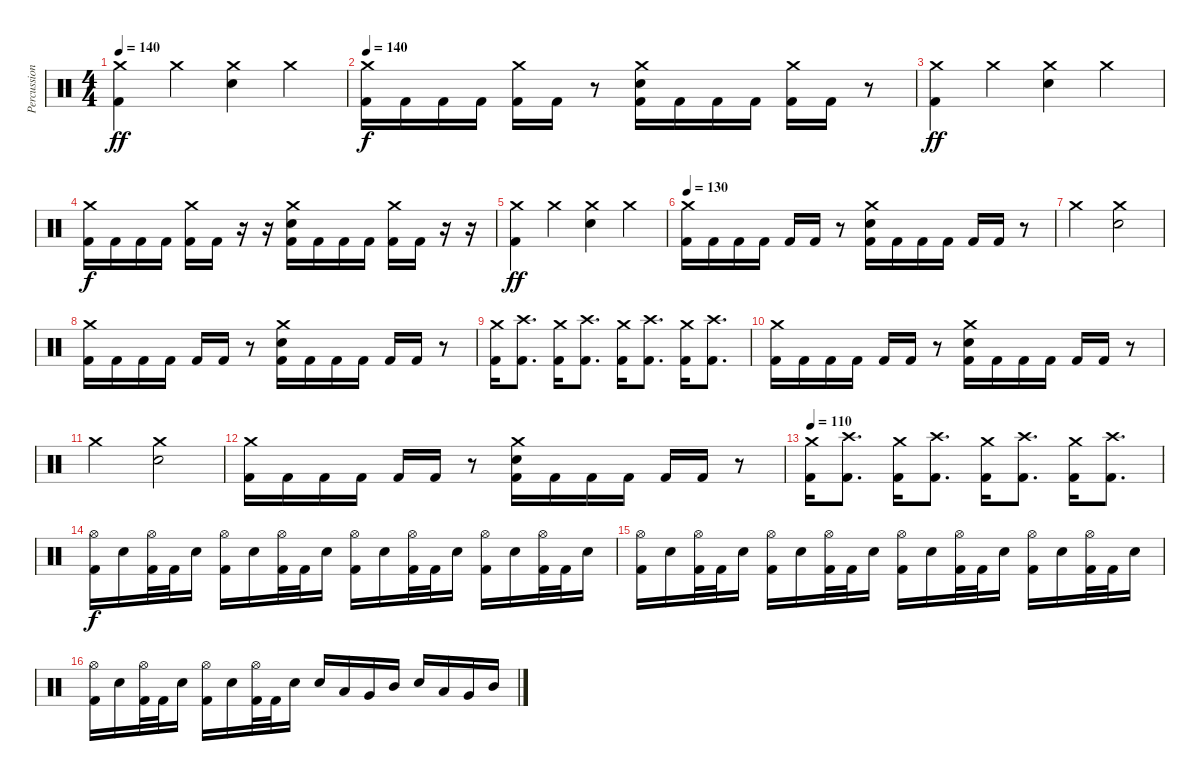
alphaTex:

\track ("Percussion" "Percussion") {instrument percussion}
\staff {score}
\articulation defaults
\ts (4 4)
\tempo 140
\clef neutral
\ks c
("Crash medium (hit)" "Kick (hit) 2").4{dy ff} "Crash medium (hit)".4 ("Crash medium (hit)" "Electric Snare (hit)").4 "Crash medium (hit)".4 |
\tempo 140
("Crash medium (hit)" "Kick (hit) 2").16{dy f} "Kick (hit) 2".16 "Kick (hit) 2".16 "Kick (hit) 2".16 ("Crash medium (hit)" "Kick (hit) 2").16 "Kick (hit) 2".16 r.8 ("Crash medium (hit)" "Electric Snare (hit)" "Kick (hit) 2").16 "Kick (hit) 2".16 "Kick (hit) 2".16 "Kick (hit) 2".16 ("Crash medium (hit)" "Kick (hit) 2").16 "Kick (hit) 2".16 r.8 |
("Crash medium (hit)" "Kick (hit) 2").4{dy ff} "Crash medium (hit)".4 ("Crash medium (hit)" "Electric Snare (hit)").4 "Crash medium (hit)".4 |
("Crash medium (hit)" "Kick (hit) 2").16{dy f} "Kick (hit) 2".16 "Kick (hit) 2".16 "Kick (hit) 2".16 ("Crash medium (hit)" "Kick (hit) 2").16 "Kick (hit) 2".16 r.16 r.16 ("Crash medium (hit)" "Electric Snare (hit)" "Kick (hit) 2").16 "Kick (hit) 2".16 "Kick (hit) 2".16 "Kick (hit) 2".16 ("Crash medium (hit)" "Kick (hit) 2").16 "Kick (hit) 2".16 r.16 r.16 |
("Crash medium (hit)" "Kick (hit) 2").4{dy ff} "Crash medium (hit)".4 ("Crash medium (hit)" "Electric Snare (hit)").4 "Crash medium (hit)".4 |
\tempo 130
("Crash medium (hit)" "Kick (hit) 2").16 "Kick (hit) 2".16 "Kick (hit) 2".16 "Kick (hit) 2".16 "Kick (hit) 2".16 "Kick (hit) 2".16 r.8 ("Crash medium (hit)" "Electric Snare (hit)" "Kick (hit) 2").16 "Kick (hit) 2".16 "Kick (hit) 2".16 "Kick (hit) 2".16 "Kick (hit) 2".16 "Kick (hit) 2".16 r.8 |
"Crash medium (hit)".2 ("Crash medium (hit)" "Electric Snare (hit)").2 |
("Crash medium (hit)" "Kick (hit) 2").16 "Kick (hit) 2".16 "Kick (hit) 2".16 "Kick (hit) 2".16 "Kick (hit) 2".16 "Kick (hit) 2".16 r.8 ("Crash medium (hit)" "Electric Snare (hit)" "Kick (hit) 2").16 "Kick (hit) 2".16 "Kick (hit) 2".16 "Kick (hit) 2".16 "Kick (hit) 2".16 "Kick (hit) 2".16 r.8 |
("Crash medium (hit)" "Kick (hit) 2").16 ("Crash high (hit)" "Kick (hit) 2").8{d} ("Crash medium (hit)" "Kick (hit) 2").16 ("Crash high (hit)" "Kick (hit) 2").8{d} ("Crash medium (hit)" "Kick (hit) 2").16 ("Crash high (hit)" "Kick (hit) 2").8{d} ("Crash medium (hit)" "Kick (hit) 2").16 ("Crash high (hit)" "Kick (hit) 2").8{d} |
("Crash medium (hit)" "Kick (hit) 2").16 "Kick (hit) 2".16 "Kick (hit) 2".16 "Kick (hit) 2".16 "Kick (hit) 2".16 "Kick (hit) 2".16 r.8 ("Crash medium (hit)" "Electric Snare (hit)" "Kick (hit) 2").16 "Kick (hit) 2".16 "Kick (hit) 2".16 "Kick (hit) 2".16 "Kick (hit) 2".16 "Kick (hit) 2".16 r.8 |
"Crash medium (hit)".2 ("Crash medium (hit)" "Electric Snare (hit)").2 |
("Crash medium (hit)" "Kick (hit) 2").16 "Kick (hit) 2".16 "Kick (hit) 2".16 "Kick (hit) 2".16 "Kick (hit) 2".16 "Kick (hit) 2".16 r.8 ("Crash medium (hit)" "Electric Snare (hit)" "Kick (hit) 2").16 "Kick (hit) 2".16 "Kick (hit) 2".16 "Kick (hit) 2".16 "Kick (hit) 2".16 "Kick (hit) 2".16 r.8 |
\tempo 110
("Crash medium (hit)" "Kick (hit) 2").16 ("Crash high (hit)" "Kick (hit) 2").8{d} ("Crash medium (hit)" "Kick (hit) 2").16 ("Crash high (hit)" "Kick (hit) 2").8{d} ("Crash medium (hit)" "Kick (hit) 2").16 ("Crash high (hit)" "Kick (hit) 2").8{d} ("Crash medium (hit)" "Kick (hit) 2").16 ("Crash high (hit)" "Kick (hit) 2").8{d} |
("Hi-Hat (open)" "Kick (hit) 2").16{dy f} "Electric Snare (hit)".16 ("Hi-Hat (open)" "Kick (hit) 2").32 "Kick (hit) 2".32 "Electric Snare (hit)".16 ("Hi-Hat (open)" "Kick (hit) 2").16 "Electric Snare (hit)".16 ("Hi-Hat (open)" "Kick (hit) 2").32 "Kick (hit) 2".32 "Electric Snare (hit)".16 ("Hi-Hat (open)" "Kick (hit) 2").16 "Electric Snare (hit)".16 ("Hi-Hat (open)" "Kick (hit) 2").32 "Kick (hit) 2".32 "Electric Snare (hit)".16 ("Hi-Hat (open)" "Kick (hit) 2").16 "Electric Snare (hit)".16 ("Hi-Hat (open)" "Kick (hit) 2").32 "Kick (hit) 2".32 "Electric Snare (hit)".16 |
("Hi-Hat (open)" "Kick (hit) 2").16 "Electric Snare (hit)".16 ("Hi-Hat (open)" "Kick (hit) 2").32 "Kick (hit) 2".32 "Electric Snare (hit)".16 ("Hi-Hat (open)" "Kick (hit) 2").16 "Electric Snare (hit)".16 ("Hi-Hat (open)" "Kick (hit) 2").32 "Kick (hit) 2".32 "Electric Snare (hit)".16 ("Hi-Hat (open)" "Kick (hit) 2").16 "Electric Snare (hit)".16 ("Hi-Hat (open)" "Kick (hit) 2").32 "Kick (hit) 2".32 "Electric Snare (hit)".16 ("Hi-Hat (open)" "Kick (hit) 2").16 "Electric Snare (hit)".16 ("Hi-Hat (open)" "Kick (hit) 2").32 "Kick (hit) 2".32 "Electric Snare (hit)".16 |
("Hi-Hat (open)" "Kick (hit) 2").16 "Electric Snare (hit)".16 ("Hi-Hat (open)" "Kick (hit) 2").32 "Kick (hit) 2".32 "Electric Snare (hit)".16 ("Hi-Hat (open)" "Kick (hit) 2").16 "Electric Snare (hit)".16 ("Hi-Hat (open)" "Kick (hit) 2").32 "Kick (hit) 2".32 "Electric Snare (hit)".16 "Electric Snare (hit)".16 "Low Tom (hit)".16 "Very Low Tom (hit)".16 "Mid Tom (hit)".16 "Electric Snare (hit)".16 "Low Tom (hit)".16 "Very Low Tom (hit)".16 "Mid Tom (hit)".16
